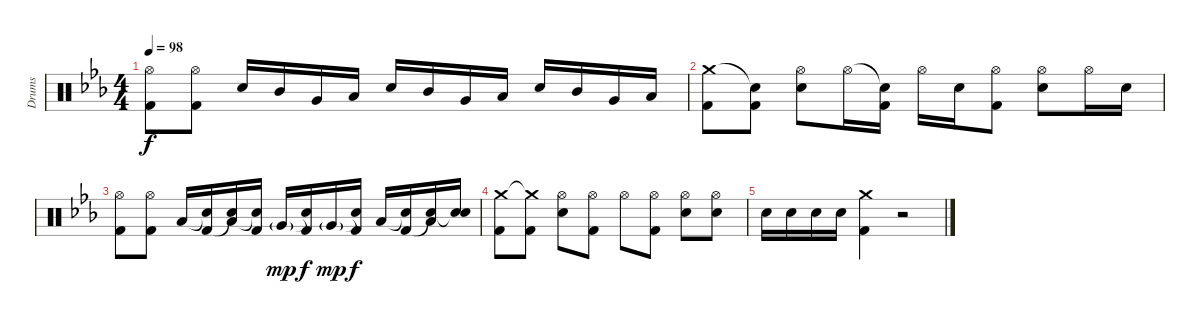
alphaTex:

\track ("Drums" "Drums") {instrument percussion}
\staff {score}
\articulation defaults
\ts (4 4)
\tempo 98
\clef neutral
\ks cminor
("Hi-Hat (open)" "Kick (hit) 2").8{dy f} ("Hi-Hat (open)" "Kick (hit) 2").8 "Electric Snare (hit)".16 "Mid Tom (hit)".16 "Very Low Tom (hit)".16 "Low Floor Tom (hit)".16 "Electric Snare (hit)".16 "Mid Tom (hit)".16 "Very Low Tom (hit)".16 "Low Floor Tom (hit)".16 "Electric Snare (hit)".16 "Mid Tom (hit)".16 "Very Low Tom (hit)".16 "Low Floor Tom (hit)".16 |
("Crash medium (hit)" "Kick (hit) 2").8 ("Snare (hit)"{t} "Kick (hit) 2").8 ("Hi-Hat (open)" "Electric Snare (hit)").8 "Hi-Hat (open)".16 ("Snare (hit)"{t} "Kick (hit) 2").16 "Hi-Hat (open)".16 "Electric Snare (hit)".16 ("Hi-Hat (open)" "Kick (hit) 2").8 ("Hi-Hat (open)" "Electric Snare (hit)").8 "Hi-Hat (open)".16 "Electric Snare (hit)".16 |
("Hi-Hat (open)" "Kick (hit) 2").8 ("Hi-Hat (open)" "Kick (hit) 2").8 "Low Tom (hit)".16 ("Snare (hit)"{t} "Kick (hit) 2").16 ("Low Tom (hit)" "Snare (hit)"{t}).16 ("Snare (hit)"{t} "Kick (hit) 2").16 "Very Low Tom (hit)"{g}.16{dy mp} ("Snare (hit)"{t} "Kick (hit) 2").16{dy f} "Very Low Tom (hit)"{g}.16{dy mp} ("Snare (hit)"{t} "Kick (hit) 2").16{dy f} "Low Floor Tom (hit)".16 ("Snare (hit)"{t} "Kick (hit) 2").16 ("Low Floor Tom (hit)" "Snare (hit)"{t}).16 ("Electric Snare (hit)" "Snare (hit)"{t}).16 |
("Crash medium (hit)" "Kick (hit) 2").8 ("Crash medium (hit)"{t} "Kick (hit) 2").8 ("Hi-Hat (open)" "Electric Snare (hit)").8 ("Hi-Hat (open)" "Kick (hit) 2").8 "Hi-Hat (open)".8 ("Hi-Hat (open)" "Kick (hit) 2").8 ("Hi-Hat (open)" "Electric Snare (hit)").8 ("Hi-Hat (open)" "Electric Snare (hit)").8 |
"Electric Snare (hit)".16 "Electric Snare (hit)".16 "Electric Snare (hit)".16 "Electric Snare (hit)".16 ("Crash medium (hit)" "Kick (hit) 2").4 r.2
